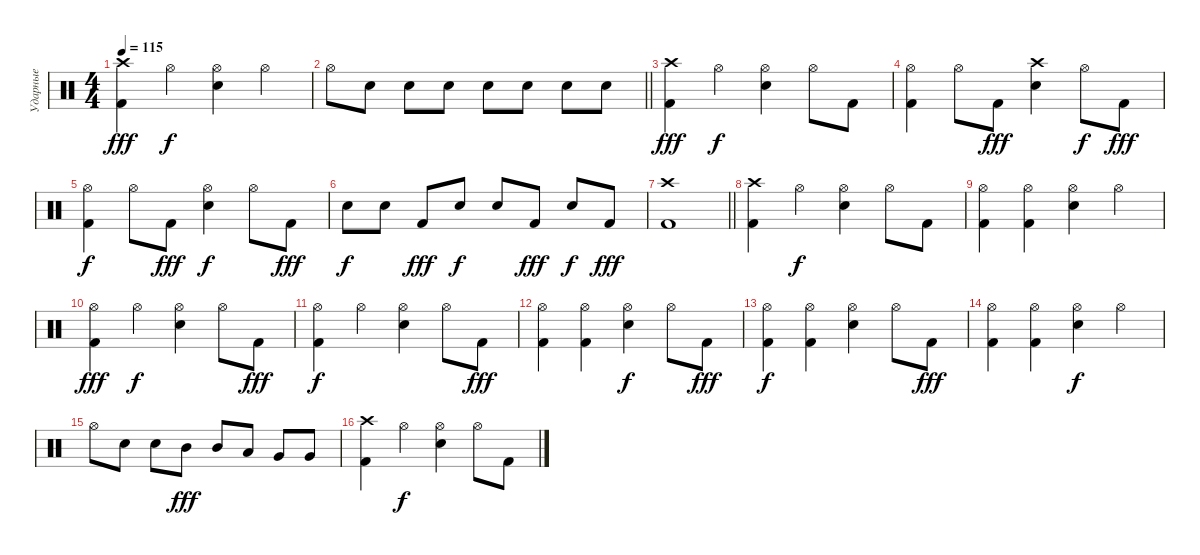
\track ("Ударные" "Ударные") {instrument percussion}
\staff {score}
\articulation defaults
\ts (4 4)
\tempo 115
\clef neutral
\ks c
("Kick (hit) 2" "Crash high (hit)").4{dy fff} "Hi-Hat (open)".4{dy f} ("Snare (hit) 2" "Hi-Hat (open)").4 "Hi-Hat (open)".4 |
\barLineRight lightlight "Hi-Hat (open)".8 "Snare (hit) 2".8 "Snare (hit) 2".8 "Snare (hit) 2".8 "Snare (hit) 2".8 "Snare (hit) 2".8 "Snare (hit) 2".8 "Snare (hit) 2".8
|
("Kick (hit) 2" "Crash high (hit)").4{dy fff} "Hi-Hat (open)".4{dy f} ("Snare (hit) 2" "Hi-Hat (open)").4 "Hi-Hat (open)".8 "Kick (hit) 2".8 |
("Kick (hit) 2" "Hi-Hat (open)").4 "Hi-Hat (open)".8 "Kick (hit) 2".8{dy fff} ("Snare (hit) 2" "Crash high (hit)").4 "Hi-Hat (open)".8{dy f} "Kick (hit) 2".8{dy fff} |
("Kick (hit) 2" "Hi-Hat (open)").4{dy f} "Hi-Hat (open)".8 "Kick (hit) 2".8{dy fff} ("Snare (hit) 2" "Hi-Hat (open)").4{dy f} "Hi-Hat (open)".8 "Kick (hit) 2".8{dy fff} |
"Snare (hit) 2".8{dy f} "Snare (hit) 2".8 "Kick (hit) 2".8{dy fff} "Snare (hit) 2".8{dy f} "Snare (hit) 2".8 "Kick (hit) 2".8{dy fff} "Snare (hit) 2".8{dy f} "Kick (hit) 2".8{dy fff} |
\barLineRight lightlight
("Kick (hit) 2" "Crash high (hit)").1 |
("Kick (hit) 2" "Crash high (hit)").4 "Hi-Hat (open)".4{dy f} ("Snare (hit) 2" "Hi-Hat (open)").4 "Hi-Hat (open)".8 "Kick (hit) 2".8 |
("Kick (hit) 2" "Hi-Hat (open)").4 ("Kick (hit) 2" "Hi-Hat (open)").4 ("Snare (hit) 2" "Hi-Hat (open)").4 "Hi-Hat (open)".4 |
("Kick (hit) 2" "Hi-Hat (open)").4{dy fff} "Hi-Hat (open)".4{dy f} ("Snare (hit) 2" "Hi-Hat (open)").4 "Hi-Hat (open)".8 "Kick (hit) 2".8{dy fff} |
("Kick (hit) 2" "Hi-Hat (open)").4{dy f} "Hi-Hat (open)".4 ("Snare (hit) 2" "Hi-Hat (open)").4 "Hi-Hat (open)".8 "Kick (hit) 2".8{dy fff} |
("Kick (hit) 2" "Hi-Hat (open)").4 ("Kick (hit) 2" "Hi-Hat (open)").4 ("Snare (hit) 2" "Hi-Hat (open)").4{dy f} "Hi-Hat (open)".8 "Kick (hit) 2".8{dy fff} |
("Kick (hit) 2" "Hi-Hat (open)").4{dy f} ("Kick (hit) 2" "Hi-Hat (open)").4 ("Snare (hit) 2" "Hi-Hat (open)").4 "Hi-Hat (open)".8 "Kick (hit) 2".8{dy fff} |
("Kick (hit) 2" "Hi-Hat (open)").4 ("Kick (hit) 2" "Hi-Hat (open)").4 ("Snare (hit) 2" "Hi-Hat (open)").4{dy f} "Hi-Hat (open)".4 |
"Hi-Hat (open)".8 "Snare (hit) 2".8 "Snare (hit) 2".8 "Mid Tom (hit)".8{dy fff} "Mid Tom (hit)".8 "Low Tom (hit)".8 "Very Low Tom (hit)".8 "Very Low Tom (hit)".8 |
("Kick (hit) 2" "Crash high (hit)").4 "Hi-Hat (open)".4{dy f} ("Snare (hit) 2" "Hi-Hat (open)").4 "Hi-Hat (open)".8 "Kick (hit) 2".8
